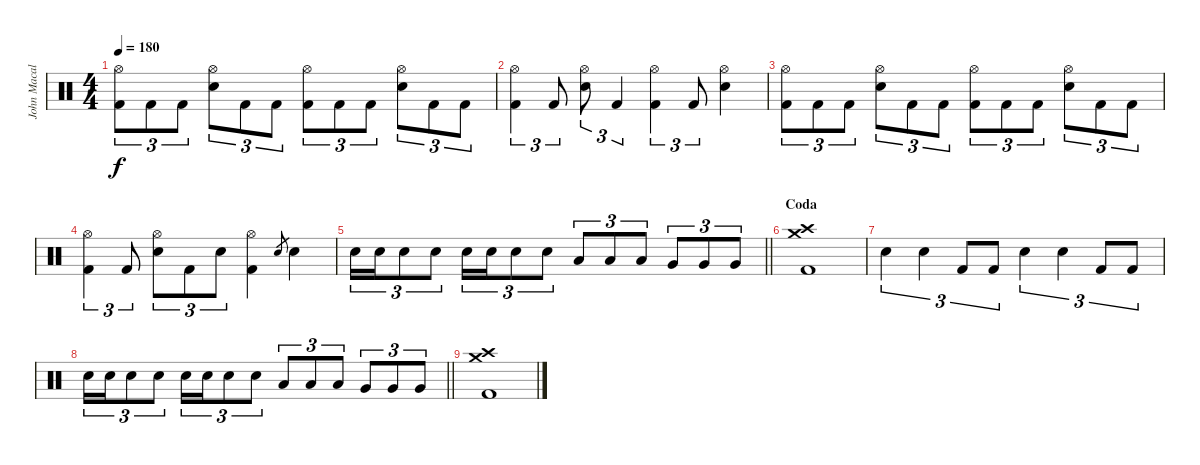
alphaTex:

\track ("John Macaluso" "John Macal") {instrument percussion}
\staff {score}
\articulation defaults
\ts (4 4)
\tempo 180
\clef neutral
\ks c
("Hi-Hat (open)" "Kick (hit) 2").8{tu (3 2) dy f} "Kick (hit) 2".8{tu (3 2)} "Kick (hit) 2".8{tu (3 2)} ("Hi-Hat (open)" "Snare (hit) 2").8{tu (3 2)} "Kick (hit) 2".8{tu (3 2)} "Kick (hit) 2".8{tu (3 2)} ("Hi-Hat (open)" "Kick (hit) 2").8{tu (3 2)} "Kick (hit) 2".8{tu (3 2)} "Kick (hit) 2".8{tu (3 2)} ("Hi-Hat (open)" "Snare (hit) 2").8{tu (3 2)} "Kick (hit) 2".8{tu (3 2)} "Kick (hit) 2".8{tu (3 2)} |
("Hi-Hat (open)" "Kick (hit) 2").4{tu (3 2)} "Kick (hit) 2".8{tu (3 2)} ("Hi-Hat (open)" "Snare (hit) 2").8{tu (3 2)} "Kick (hit) 2".4{tu (3 2)} ("Hi-Hat (open)" "Kick (hit) 2").4{tu (3 2)} "Kick (hit) 2".8{tu (3 2)} ("Hi-Hat (open)" "Snare (hit) 2").4 |
("Hi-Hat (open)" "Kick (hit) 2").8{tu (3 2)} "Kick (hit) 2".8{tu (3 2)} "Kick (hit) 2".8{tu (3 2)} ("Hi-Hat (open)" "Snare (hit) 2").8{tu (3 2)} "Kick (hit) 2".8{tu (3 2)} "Kick (hit) 2".8{tu (3 2)} ("Hi-Hat (open)" "Kick (hit) 2").8{tu (3 2)} "Kick (hit) 2".8{tu (3 2)} "Kick (hit) 2".8{tu (3 2)} ("Hi-Hat (open)" "Snare (hit) 2").8{tu (3 2)} "Kick (hit) 2".8{tu (3 2)} "Kick (hit) 2".8{tu (3 2)} |
("Hi-Hat (open)" "Kick (hit) 2").4{tu (3 2)} "Kick (hit) 2".8{tu (3 2)} ("Hi-Hat (open)" "Snare (hit) 2").8{tu (3 2)} "Kick (hit) 2".8{tu (3 2)} "Snare (hit) 2".8{tu (3 2)} ("Hi-Hat (open)" "Kick (hit) 2").4 "Snare (hit) 2".8{gr} "Snare (hit) 2".4 |
\barLineRight lightlight "Snare (hit) 2".16{tu (3 2)} "Snare (hit) 2".16{tu (3 2)} "Snare (hit) 2".8{tu (3 2)} "Snare (hit) 2".8{tu (3 2)} "Snare (hit) 2".16{tu (3 2)} "Snare (hit) 2".16{tu (3 2)} "Snare (hit) 2".8{tu (3 2)} "Snare (hit) 2".8{tu (3 2)} "Low Tom (hit)".8{tu (3 2)} "Low Tom (hit)".8{tu (3 2)} "Low Tom (hit)".8{tu (3 2)} "Very Low Tom (hit)".8{tu (3 2)} "Very Low Tom (hit)".8{tu (3 2)} "Very Low Tom (hit)".8{tu (3 2)}
|
\section ("" "Coda")
("Crash medium (hit)" "Crash high (hit)" "Kick (hit) 2").1 |
"Snare (hit) 2".4{tu (3 2)} "Snare (hit) 2".4{tu (3 2)} "Kick (hit) 2".8{tu (3 2)} "Kick (hit) 2".8{tu (3 2)} "Snare (hit) 2".4{tu (3 2)} "Snare (hit) 2".4{tu (3 2)} "Kick (hit) 2".8{tu (3 2)} "Kick (hit) 2".8{tu (3 2)} |
\barLineRight lightlight "Snare (hit) 2".16{tu (3 2)} "Snare (hit) 2".16{tu (3 2)} "Snare (hit) 2".8{tu (3 2)} "Snare (hit) 2".8{tu (3 2)} "Snare (hit) 2".16{tu (3 2)} "Snare (hit) 2".16{tu (3 2)} "Snare (hit) 2".8{tu (3 2)} "Snare (hit) 2".8{tu (3 2)} "Low Tom (hit)".8{tu (3 2)} "Low Tom (hit)".8{tu (3 2)} "Low Tom (hit)".8{tu (3 2)} "Very Low Tom (hit)".8{tu (3 2)} "Very Low Tom (hit)".8{tu (3 2)} "Very Low Tom (hit)".8{tu (3 2)}
|
("Crash medium (hit)" "Crash high (hit)" "Kick (hit) 2").1
